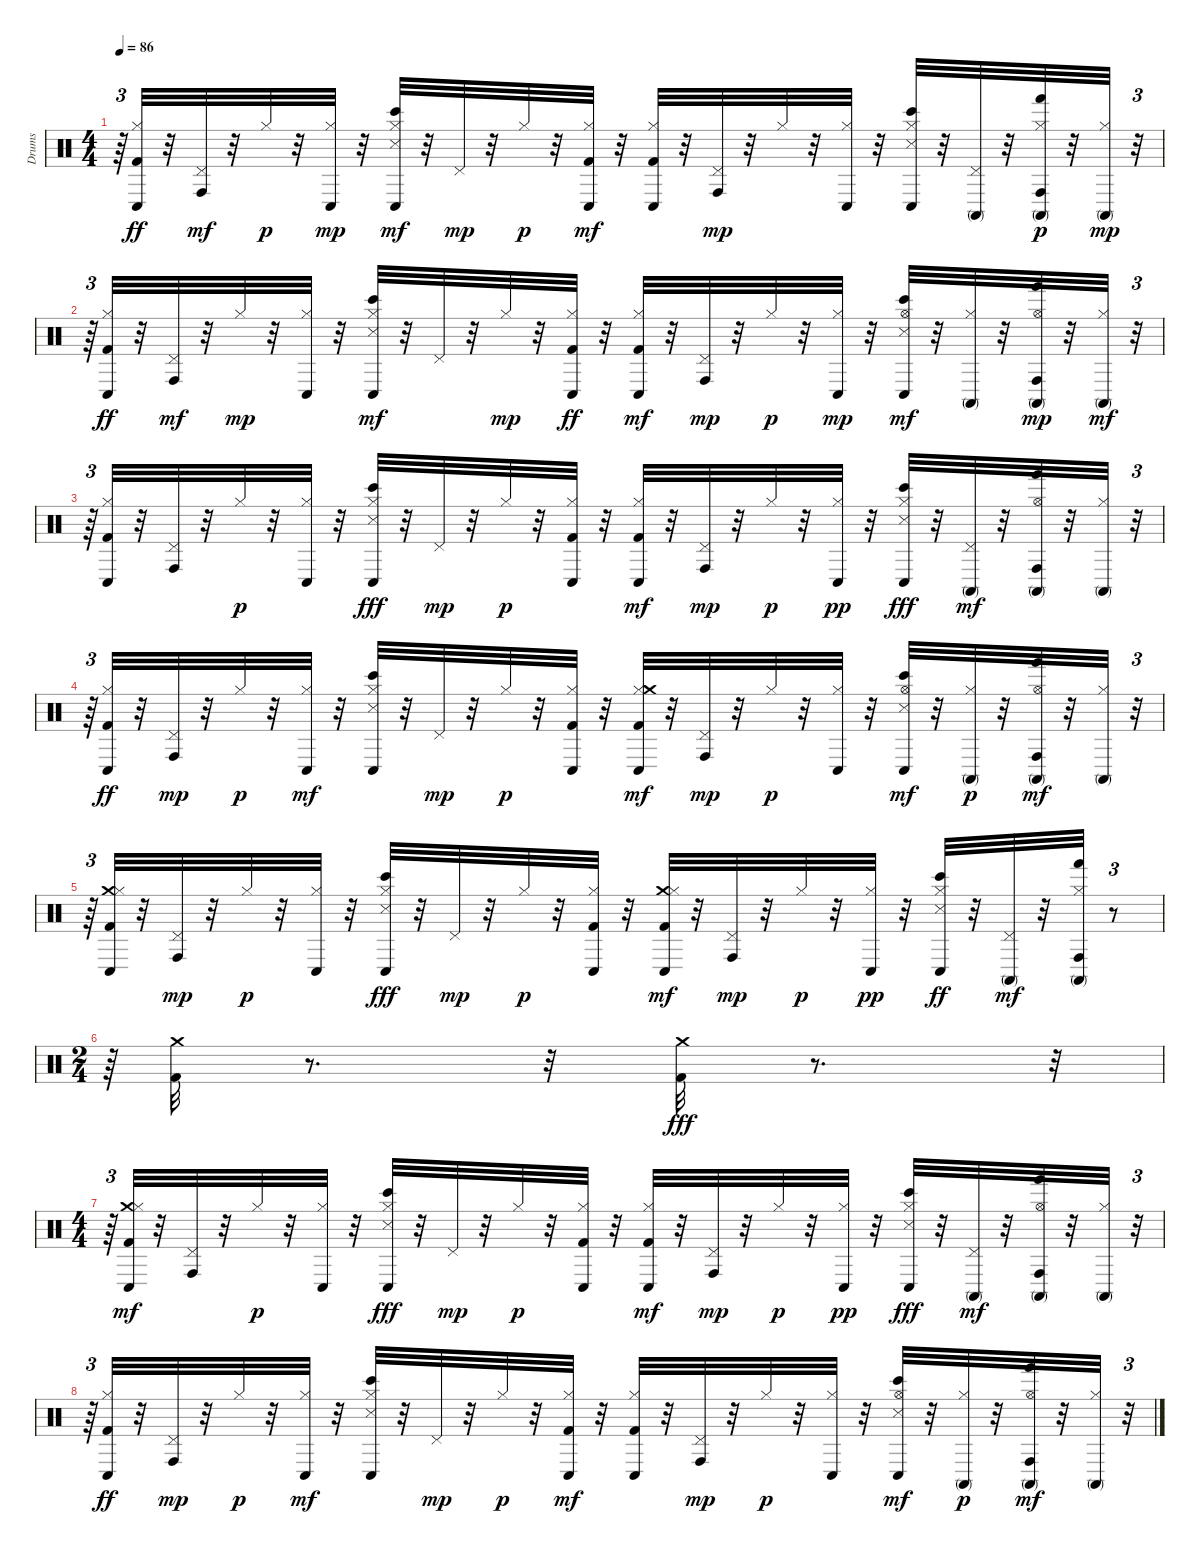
\track ("Drums" "Drums") {instrument percussion}
\staff {score}
\articulation defaults
\ts (4 4)
\tempo 86
\clef neutral
\ks c
r.64{tu (3 2) dy mf} ("Conga low (hit)" "Kick (hit) 2" "Hi-Hat (closed)").32{dy ff} r.32 ("Conga high (hit)" "Pedal Hi-Hat (hit)").32{dy mf} r.32 "Hi-Hat (closed)".32{dy p} r.32 ("Conga low (hit)" "Hi-Hat (closed)").32{dy mp} r.32 ("Snare (side stick) 3" "Conga low (hit)" "Bongo High (hit)" "Hi-Hat (closed)").32{dy mf} r.32 "Pedal Hi-Hat (hit)".32{dy mp} r.32 "Hi-Hat (closed)".32{dy p} r.32 ("Conga low (hit)" "Hi-Hat (closed)" "Kick (hit) 2").32{dy mf} r.32 ("Hi-Hat (closed)" "Conga low (hit)" "Kick (hit) 2").32 r.32 ("Conga high (hit)" "Pedal Hi-Hat (hit)").32{dy mp} r.32 "Hi-Hat (closed)".32 r.32 ("Conga low (hit)" "Hi-Hat (closed)").32 r.32 ("Conga low (hit)" "Snare (side stick) 3" "Bongo High (hit)" "Hi-Hat (closed)").32 r.32 ("Conga high (mute)" "Pedal Hi-Hat (hit)").32 r.32 ("Conga high (hit)" "Conga high (mute)" "Hand (hit)" "Hi-Hat (closed)").32{dy p} r.32 ("Conga high (mute)" "Hi-Hat (closed)").32{dy mp} r.32{tu (3 2)} |
r.64{tu (3 2)} ("Conga low (hit)" "Kick (hit) 2" "Hi-Hat (closed)").32{dy ff} r.32 ("Conga high (hit)" "Pedal Hi-Hat (hit)").32{dy mf} r.32 "Hi-Hat (closed)".32{dy mp} r.32 ("Conga low (hit)" "Hi-Hat (closed)").32 r.32 ("Conga low (hit)" "Snare (side stick) 3" "Bongo High (hit)" "Hi-Hat (closed)").32{dy mf} r.32 "Pedal Hi-Hat (hit)".32 r.32 "Hi-Hat (closed)".32{dy mp} r.32 ("Hi-Hat (closed)" "Conga low (hit)" "Kick (hit) 2").32{dy ff} r.32 ("Conga low (hit)" "Hi-Hat (closed)" "Kick (hit) 2").32{dy mf} r.32 ("Conga high (hit)" "Pedal Hi-Hat (hit)").32{dy mp} r.32 "Hi-Hat (closed)".32{dy p} r.32 ("Conga low (hit)" "Hi-Hat (closed)").32{dy mp} r.32 ("Conga low (hit)" "Bongo High (hit)" "Snare (side stick) 3" "Hi-Hat (open)").32{dy mf} r.32 ("Conga high (mute)" "Hi-Hat (closed)").32 r.32 ("Conga high (hit)" "Hi-Hat (open)" "Conga high (mute)" "Hand (hit)").32{dy mp} r.32 ("Hi-Hat (closed)" "Conga high (mute)").32{dy mf} r.32{tu (3 2)} |
r.64{tu (3 2)} ("Kick (hit) 2" "Conga low (hit)" "Hi-Hat (closed)").32 r.32 ("Conga high (hit)" "Pedal Hi-Hat (hit)").32 r.32 "Hi-Hat (closed)".32{dy p} r.32 ("Conga low (hit)" "Hi-Hat (closed)").32 r.32 ("Bongo High (hit)" "Conga low (hit)" "Snare (side stick) 3" "Hi-Hat (closed)").32{dy fff} r.32 "Pedal Hi-Hat (hit)".32{dy mp} r.32 "Hi-Hat (closed)".32{dy p} r.32 ("Conga low (hit)" "Hi-Hat (closed)" "Kick (hit) 2").32 r.32 ("Conga low (hit)" "Hi-Hat (closed)" "Kick (hit) 2").32{dy mf} r.32 ("Pedal Hi-Hat (hit)" "Conga high (hit)").32{dy mp} r.32 "Hi-Hat (closed)".32{dy p} r.32 ("Conga low (hit)" "Hi-Hat (closed)").32{dy pp} r.32 ("Conga low (hit)" "Bongo High (hit)" "Hi-Hat (closed)" "Snare (side stick) 3").32{dy fff} r.32 ("Conga high (mute)" "Pedal Hi-Hat (hit)").32{dy mf} r.32 ("Hi-Hat (open)" "Conga high (mute)" "Conga high (hit)" "Hand (hit)").32 r.32 ("Hi-Hat (closed)" "Conga high (mute)").32 r.32{tu (3 2)} |
r.64{tu (3 2)} ("Hi-Hat (closed)" "Kick (hit) 2" "Conga low (hit)").32{dy ff} r.32 ("Pedal Hi-Hat (hit)" "Conga high (hit)").32{dy mp} r.32 "Hi-Hat (closed)".32{dy p} r.32 ("Hi-Hat (closed)" "Conga low (hit)").32{dy mf} r.32 ("Snare (side stick) 3" "Hi-Hat (closed)" "Bongo High (hit)" "Conga low (hit)").32 r.32 "Pedal Hi-Hat (hit)".32{dy mp} r.32 "Hi-Hat (closed)".32{dy p} r.32 ("Kick (hit) 2" "Conga low (hit)" "Hi-Hat (closed)").32 r.32 ("Kick (hit) 2" "Conga low (hit)" "Hi-Hat (closed)" "Crash medium (hit)").32{dy mf} r.32 ("Pedal Hi-Hat (hit)" "Conga high (hit)").32{dy mp} r.32 "Hi-Hat (closed)".32{dy p} r.32 ("Conga low (hit)" "Hi-Hat (closed)").32 r.32 ("Bongo High (hit)" "Conga low (hit)" "Snare (side stick) 3" "Hi-Hat (open)").32{dy mf} r.32 ("Conga high (mute)" "Hi-Hat (closed)").32{dy p} r.32 ("Conga high (hit)" "Hi-Hat (open)" "Conga high (mute)" "Hand (hit)").32{dy mf} r.32 ("Hi-Hat (closed)" "Conga high (mute)").32 r.32{tu (3 2)} |
r.64{tu (3 2)} ("Kick (hit) 2" "Conga low (hit)" "Crash medium (hit)" "Hi-Hat (closed)").32 r.32 ("Pedal Hi-Hat (hit)" "Conga high (hit)").32{dy mp} r.32 "Hi-Hat (closed)".32{dy p} r.32 ("Conga low (hit)" "Hi-Hat (closed)").32 r.32 ("Bongo High (hit)" "Conga low (hit)" "Hi-Hat (closed)" "Snare (side stick) 3").32{dy fff} r.32 "Pedal Hi-Hat (hit)".32{dy mp} r.32 "Hi-Hat (closed)".32{dy p} r.32 ("Conga low (hit)" "Hi-Hat (closed)" "Kick (hit) 2").32 r.32 ("Conga low (hit)" "Crash medium (hit)" "Hi-Hat (closed)" "Kick (hit) 2").32{dy mf} r.32 ("Pedal Hi-Hat (hit)" "Conga high (hit)").32{dy mp} r.32 "Hi-Hat (closed)".32{dy p} r.32 ("Conga low (hit)" "Hi-Hat (closed)").32{dy pp} r.32 ("Conga low (hit)" "Bongo High (hit)" "Snare (side stick) 3" "Hi-Hat (closed)").32{dy ff} r.32 ("Conga high (mute)" "Pedal Hi-Hat (hit)").32{dy mf} r.32 ("Hi-Hat (closed)" "Conga high (mute)" "Conga high (hit)" "Hand (hit)").32 r.8{tu (3 2)} |
\ts (2 4)
r.64{tu (3 2)} ("Kick (hit) 2" "Crash medium (hit)").32 r.8{d} r.32 ("Crash medium (hit)" "Kick (hit) 2").32{dy fff} r.8{d} r.32{tu (3 2)} |
\ts (4 4)
r.64{tu (3 2)} ("Crash medium (hit)" "Kick (hit) 2" "Conga low (hit)" "Hi-Hat (closed)").32{dy mf} r.32 ("Conga high (hit)" "Pedal Hi-Hat (hit)").32 r.32 "Hi-Hat (closed)".32{dy p} r.32 ("Conga low (hit)" "Hi-Hat (closed)").32 r.32 ("Bongo High (hit)" "Conga low (hit)" "Hi-Hat (closed)" "Snare (side stick) 3").32{dy fff} r.32 "Pedal Hi-Hat (hit)".32{dy mp} r.32 "Hi-Hat (closed)".32{dy p} r.32 ("Conga low (hit)" "Kick (hit) 2" "Hi-Hat (closed)").32 r.32 ("Conga low (hit)" "Kick (hit) 2" "Hi-Hat (closed)").32{dy mf} r.32 ("Pedal Hi-Hat (hit)" "Conga high (hit)").32{dy mp} r.32 "Hi-Hat (closed)".32{dy p} r.32 ("Conga low (hit)" "Hi-Hat (closed)").32{dy pp} r.32 ("Conga low (hit)" "Bongo High (hit)" "Hi-Hat (closed)" "Snare (side stick) 3").32{dy fff} r.32 ("Conga high (mute)" "Pedal Hi-Hat (hit)").32{dy mf} r.32 ("Conga high (mute)" "Hi-Hat (open)" "Conga high (hit)" "Hand (hit)").32 r.32 ("Hi-Hat (closed)" "Conga high (mute)").32 r.32{tu (3 2)} |
r.64{tu (3 2)} ("Hi-Hat (closed)" "Kick (hit) 2" "Conga low (hit)").32{dy ff} r.32 ("Pedal Hi-Hat (hit)" "Conga high (hit)").32{dy mp} r.32 "Hi-Hat (closed)".32{dy p} r.32 ("Hi-Hat (closed)" "Conga low (hit)").32{dy mf} r.32 ("Snare (side stick) 3" "Hi-Hat (closed)" "Conga low (hit)" "Bongo High (hit)").32 r.32 "Pedal Hi-Hat (hit)".32{dy mp} r.32 "Hi-Hat (closed)".32{dy p} r.32 ("Hi-Hat (closed)" "Kick (hit) 2" "Conga low (hit)").32{dy mf} r.32 ("Kick (hit) 2" "Conga low (hit)" "Hi-Hat (closed)").32 r.32 ("Conga high (hit)" "Pedal Hi-Hat (hit)").32{dy mp} r.32 "Hi-Hat (closed)".32{dy p} r.32 ("Conga low (hit)" "Hi-Hat (closed)").32 r.32 ("Snare (side stick) 3" "Bongo High (hit)" "Conga low (hit)" "Hi-Hat (open)").32{dy mf} r.32 ("Conga high (mute)" "Hi-Hat (closed)").32{dy p} r.32 ("Conga high (hit)" "Hi-Hat (open)" "Conga high (mute)" "Hand (hit)").32{dy mf} r.32 ("Hi-Hat (closed)" "Conga high (mute)").32 r.32{tu (3 2)}
